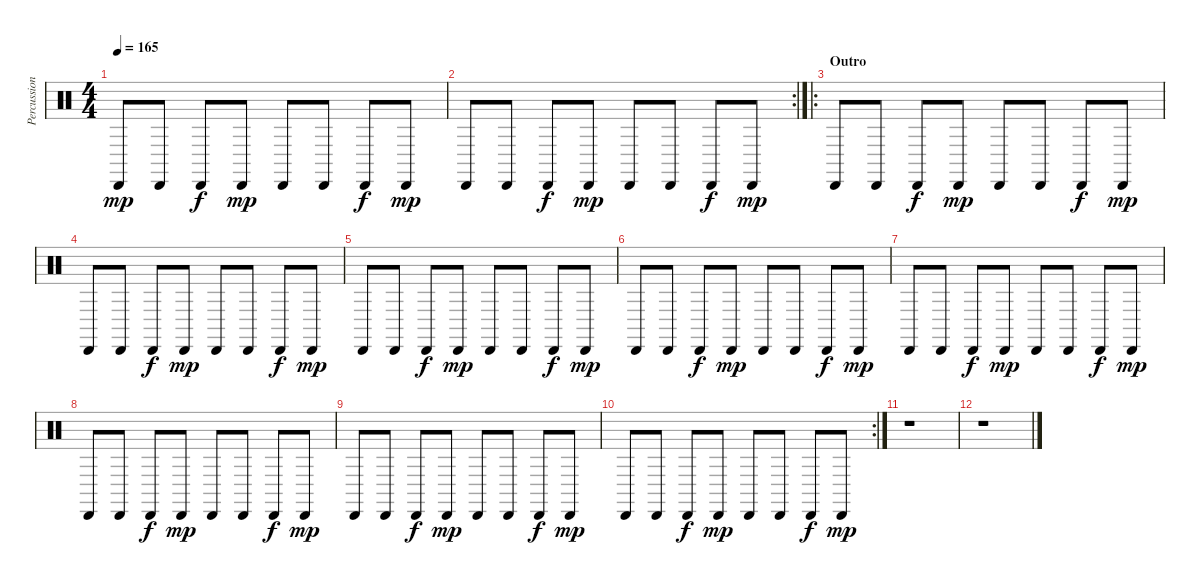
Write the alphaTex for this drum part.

\track ("Percussion" "Percussion") {instrument percussion}
\staff {score}
\articulation defaults
\ts (4 4)
\tempo 165
\clef neutral
\ks c "Cabasa (hit)".8{dy mp} "Cabasa (hit)".8 "Cabasa (hit)".8{dy f} "Cabasa (hit)".8{dy mp} "Cabasa (hit)".8 "Cabasa (hit)".8 "Cabasa (hit)".8{dy f} "Cabasa (hit)".8{dy mp}
|
\rc 2 "Cabasa (hit)".8 "Cabasa (hit)".8 "Cabasa (hit)".8{dy f} "Cabasa (hit)".8{dy mp} "Cabasa (hit)".8 "Cabasa (hit)".8 "Cabasa (hit)".8{dy f} "Cabasa (hit)".8{dy mp}
|
\ro
\section ("" "Outro")
"Cabasa (hit)".8 "Cabasa (hit)".8 "Cabasa (hit)".8{dy f} "Cabasa (hit)".8{dy mp} "Cabasa (hit)".8 "Cabasa (hit)".8 "Cabasa (hit)".8{dy f} "Cabasa (hit)".8{dy mp} |
"Cabasa (hit)".8 "Cabasa (hit)".8 "Cabasa (hit)".8{dy f} "Cabasa (hit)".8{dy mp} "Cabasa (hit)".8 "Cabasa (hit)".8 "Cabasa (hit)".8{dy f} "Cabasa (hit)".8{dy mp} |
"Cabasa (hit)".8 "Cabasa (hit)".8 "Cabasa (hit)".8{dy f} "Cabasa (hit)".8{dy mp} "Cabasa (hit)".8 "Cabasa (hit)".8 "Cabasa (hit)".8{dy f} "Cabasa (hit)".8{dy mp} |
"Cabasa (hit)".8 "Cabasa (hit)".8 "Cabasa (hit)".8{dy f} "Cabasa (hit)".8{dy mp} "Cabasa (hit)".8 "Cabasa (hit)".8 "Cabasa (hit)".8{dy f} "Cabasa (hit)".8{dy mp} |
"Cabasa (hit)".8 "Cabasa (hit)".8 "Cabasa (hit)".8{dy f} "Cabasa (hit)".8{dy mp} "Cabasa (hit)".8 "Cabasa (hit)".8 "Cabasa (hit)".8{dy f} "Cabasa (hit)".8{dy mp} |
"Cabasa (hit)".8 "Cabasa (hit)".8 "Cabasa (hit)".8{dy f} "Cabasa (hit)".8{dy mp} "Cabasa (hit)".8 "Cabasa (hit)".8 "Cabasa (hit)".8{dy f} "Cabasa (hit)".8{dy mp} |
"Cabasa (hit)".8 "Cabasa (hit)".8 "Cabasa (hit)".8{dy f} "Cabasa (hit)".8{dy mp} "Cabasa (hit)".8 "Cabasa (hit)".8 "Cabasa (hit)".8{dy f} "Cabasa (hit)".8{dy mp} |
\rc 2 "Cabasa (hit)".8 "Cabasa (hit)".8 "Cabasa (hit)".8{dy f} "Cabasa (hit)".8{dy mp} "Cabasa (hit)".8 "Cabasa (hit)".8 "Cabasa (hit)".8{dy f} "Cabasa (hit)".8{dy mp}
|
r.1 |
r.1
